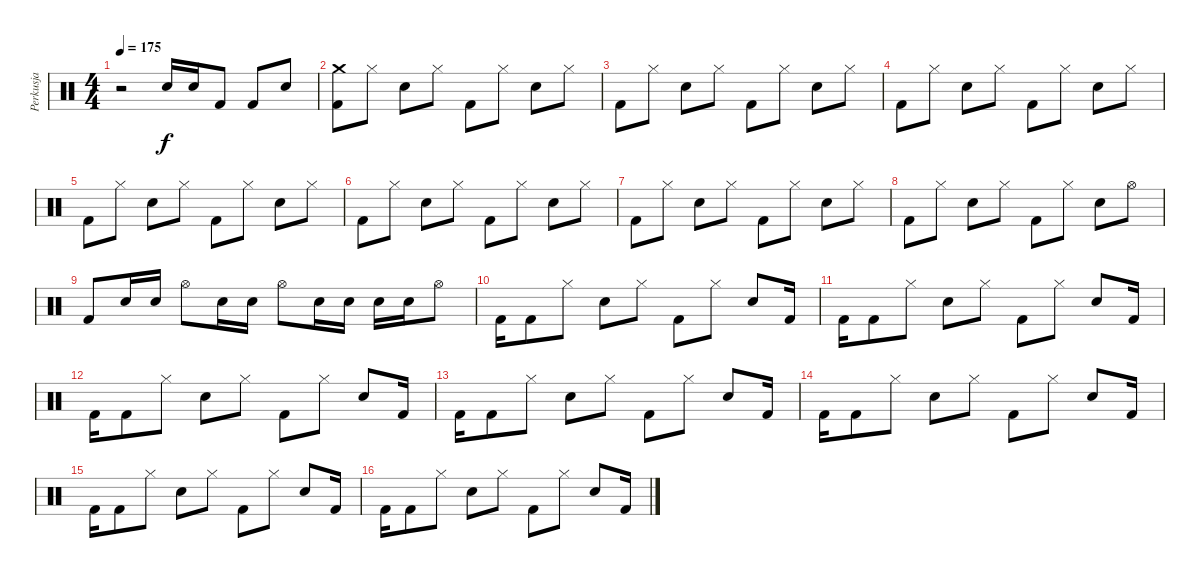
\track ("Perkusja" "Perkusja") {instrument percussion}
\staff {score}
\articulation defaults
\ts (4 4)
\tempo 175
\clef neutral
\ks c
r.2{dy f} "Snare (hit) 2".16 "Snare (hit) 2".16 "Kick (hit) 2".8 "Kick (hit) 2".8 "Snare (hit) 2".8 |
("Kick (hit) 2" "Crash medium (hit)").8 "Hi-Hat (closed)".8 "Snare (hit) 2".8 "Hi-Hat (closed)".8 "Kick (hit) 2".8 "Hi-Hat (closed)".8 "Snare (hit) 2".8 "Hi-Hat (closed)".8 |
"Kick (hit) 2".8 "Hi-Hat (closed)".8 "Snare (hit) 2".8 "Hi-Hat (closed)".8 "Kick (hit) 2".8 "Hi-Hat (closed)".8 "Snare (hit) 2".8 "Hi-Hat (closed)".8 |
"Kick (hit) 2".8 "Hi-Hat (closed)".8 "Snare (hit) 2".8 "Hi-Hat (closed)".8 "Kick (hit) 2".8 "Hi-Hat (closed)".8 "Snare (hit) 2".8 "Hi-Hat (closed)".8 |
"Kick (hit) 2".8 "Hi-Hat (closed)".8 "Snare (hit) 2".8 "Hi-Hat (closed)".8 "Kick (hit) 2".8 "Hi-Hat (closed)".8 "Snare (hit) 2".8 "Hi-Hat (closed)".8 |
"Kick (hit) 2".8 "Hi-Hat (closed)".8 "Snare (hit) 2".8 "Hi-Hat (closed)".8 "Kick (hit) 2".8 "Hi-Hat (closed)".8 "Snare (hit) 2".8 "Hi-Hat (closed)".8 |
"Kick (hit) 2".8 "Hi-Hat (closed)".8 "Snare (hit) 2".8 "Hi-Hat (closed)".8 "Kick (hit) 2".8 "Hi-Hat (closed)".8 "Snare (hit) 2".8 "Hi-Hat (closed)".8 |
"Kick (hit) 2".8 "Hi-Hat (closed)".8 "Snare (hit) 2".8 "Hi-Hat (closed)".8 "Kick (hit) 2".8 "Hi-Hat (closed)".8 "Snare (hit) 2".8 "Hi-Hat (open)".8 |
"Kick (hit) 2".8 "Snare (hit) 2".16 "Snare (hit) 2".16 "Hi-Hat (open)".8 "Snare (hit) 2".16 "Snare (hit) 2".16 "Hi-Hat (open)".8 "Snare (hit) 2".16 "Snare (hit) 2".16 "Snare (hit) 2".16 "Snare (hit) 2".16 "Hi-Hat (open)".8 |
"Kick (hit) 2".16 "Kick (hit) 2".8 "Hi-Hat (closed)".8 "Snare (hit) 2".8 "Hi-Hat (closed)".8 "Kick (hit) 2".8 "Hi-Hat (closed)".8 "Snare (hit) 2".8 "Kick (hit) 2".16 |
"Kick (hit) 2".16 "Kick (hit) 2".8 "Hi-Hat (closed)".8 "Snare (hit) 2".8 "Hi-Hat (closed)".8 "Kick (hit) 2".8 "Hi-Hat (closed)".8 "Snare (hit) 2".8 "Kick (hit) 2".16 |
"Kick (hit) 2".16 "Kick (hit) 2".8 "Hi-Hat (closed)".8 "Snare (hit) 2".8 "Hi-Hat (closed)".8 "Kick (hit) 2".8 "Hi-Hat (closed)".8 "Snare (hit) 2".8 "Kick (hit) 2".16 |
"Kick (hit) 2".16 "Kick (hit) 2".8 "Hi-Hat (closed)".8 "Snare (hit) 2".8 "Hi-Hat (closed)".8 "Kick (hit) 2".8 "Hi-Hat (closed)".8 "Snare (hit) 2".8 "Kick (hit) 2".16 |
"Kick (hit) 2".16 "Kick (hit) 2".8 "Hi-Hat (closed)".8 "Snare (hit) 2".8 "Hi-Hat (closed)".8 "Kick (hit) 2".8 "Hi-Hat (closed)".8 "Snare (hit) 2".8 "Kick (hit) 2".16 |
"Kick (hit) 2".16 "Kick (hit) 2".8 "Hi-Hat (closed)".8 "Snare (hit) 2".8 "Hi-Hat (closed)".8 "Kick (hit) 2".8 "Hi-Hat (closed)".8 "Snare (hit) 2".8 "Kick (hit) 2".16 |
"Kick (hit) 2".16 "Kick (hit) 2".8 "Hi-Hat (closed)".8 "Snare (hit) 2".8 "Hi-Hat (closed)".8 "Kick (hit) 2".8 "Hi-Hat (closed)".8 "Snare (hit) 2".8 "Kick (hit) 2".16
